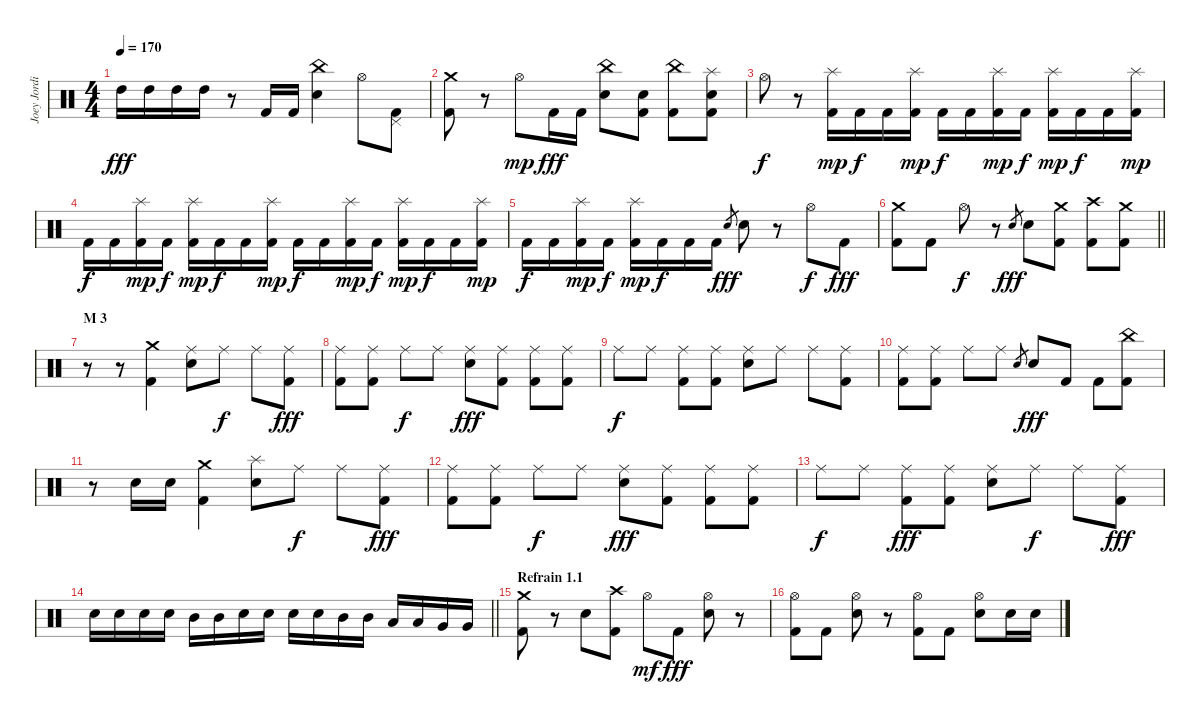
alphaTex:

\track ("Joey Jordison" "Joey Jordi") {instrument percussion}
\staff {score}
\articulation defaults
\ts (4 4)
\tempo 170
\clef neutral
\ks c "High Tom (hit)".16{dy fff} "High Tom (hit)".16 "High Tom (hit)".16 "High Tom (hit)".16
r.8 "Kick (hit) 2".16 "Kick (hit) 2".16 ("China (hit)" "Electric Snare (hit)").4 "Hi-Hat (open)".8 ("Pedal Hi-Hat (hit)" "Kick (hit) 2").8 |
("Crash medium (hit)" "Kick (hit) 2").8 r.8 "Hi-Hat (open)".8{dy mp} "Kick (hit) 2".16{dy fff} "Kick (hit) 2".16 ("China (hit)" "Electric Snare (hit)").8 ("Electric Snare (hit)" "Kick (hit) 2").8 ("China (hit)" "Kick (hit) 2").8 ("Splash (hit)" "Electric Snare (hit)" "Kick (hit) 2").8 |
"Hi-Hat (open)".8{dy f} r.8 ("Splash (hit)" "Kick (hit) 2").16{dy mp} "Kick (hit) 2".16{dy f} "Kick (hit) 2".16 ("Splash (hit)" "Kick (hit) 2").16{dy mp} "Kick (hit) 2".16{dy f} "Kick (hit) 2".16 ("Splash (hit)" "Kick (hit) 2").16{dy mp} "Kick (hit) 2".16{dy f} ("Splash (hit)" "Kick (hit) 2").16{dy mp} "Kick (hit) 2".16{dy f} "Kick (hit) 2".16 ("Splash (hit)" "Kick (hit) 2").16{dy mp} |
"Kick (hit) 2".16{dy f} "Kick (hit) 2".16 ("Splash (hit)" "Kick (hit) 2").16{dy mp} "Kick (hit) 2".16{dy f} ("Splash (hit)" "Kick (hit) 2").16{dy mp} "Kick (hit) 2".16{dy f} "Kick (hit) 2".16 ("Splash (hit)" "Kick (hit) 2").16{dy mp} "Kick (hit) 2".16{dy f} "Kick (hit) 2".16 ("Splash (hit)" "Kick (hit) 2").16{dy mp} "Kick (hit) 2".16{dy f} ("Splash (hit)" "Kick (hit) 2").16{dy mp} "Kick (hit) 2".16{dy f} "Kick (hit) 2".16 ("Splash (hit)" "Kick (hit) 2").16{dy mp} |
"Kick (hit) 2".16{dy f} "Kick (hit) 2".16 ("Splash (hit)" "Kick (hit) 2").16{dy mp} "Kick (hit) 2".16{dy f} ("Splash (hit)" "Kick (hit) 2").16{dy mp} "Kick (hit) 2".16{dy f} "Kick (hit) 2".16 "Kick (hit) 2".16 "Electric Snare (hit)".8{gr dy fff} "Electric Snare (hit)".8 r.8 "Hi-Hat (open)".8{dy f} "Kick (hit) 2".8{dy fff} |
\barLineRight lightlight
("Crash medium (hit)" "Kick (hit) 2").8 "Kick (hit) 2".8 "Hi-Hat (open)".8{dy f} r.8 "Electric Snare (hit)".8{gr dy fff} "Electric Snare (hit)".8 ("Crash medium (hit)" "Kick (hit) 2").8 ("Crash high (hit)" "Kick (hit) 2").8 ("Crash medium (hit)" "Kick (hit) 2").8 |
\section ("" "M 3")
r.8 r.8 ("Crash medium (hit)" "Kick (hit) 2").4 ("Ride (middle)" "Electric Snare (hit)").8 "Ride (middle)".8{dy f} "Ride (middle)".8 ("Ride (middle)" "Kick (hit) 2").8{dy fff} |
("Ride (middle)" "Kick (hit) 2").8 ("Ride (middle)" "Kick (hit) 2").8 "Ride (middle)".8{dy f} "Ride (middle)".8 ("Ride (middle)" "Electric Snare (hit)").8{dy fff} ("Ride (middle)" "Kick (hit) 2").8 ("Ride (middle)" "Kick (hit) 2").8 ("Ride (middle)" "Kick (hit) 2").8 |
"Ride (middle)".8{dy f} "Ride (middle)".8 ("Ride (middle)" "Kick (hit) 2").8 ("Ride (middle)" "Kick (hit) 2").8 ("Ride (middle)" "Electric Snare (hit)").8 "Ride (middle)".8 "Ride (middle)".8 ("Ride (middle)" "Kick (hit) 2").8 |
("Ride (middle)" "Kick (hit) 2").8 ("Ride (middle)" "Kick (hit) 2").8 "Ride (middle)".8 "Ride (middle)".8 "Electric Snare (hit)".8{gr} "Electric Snare (hit)".8{dy fff} "Kick (hit) 2".8 "Kick (hit) 2".8 ("China (hit)" "Kick (hit) 2").8 |
r.8 "Electric Snare (hit)".16 "Electric Snare (hit)".16 ("Crash medium (hit)" "Kick (hit) 2").4 ("Splash (hit)" "Electric Snare (hit)").8 "Ride (middle)".8{dy f} "Ride (middle)".8 ("Ride (middle)" "Kick (hit) 2").8{dy fff} |
("Ride (middle)" "Kick (hit) 2").8 ("Ride (middle)" "Kick (hit) 2").8 "Ride (middle)".8{dy f} "Ride (middle)".8 ("Ride (middle)" "Electric Snare (hit)").8{dy fff} ("Ride (middle)" "Kick (hit) 2").8 ("Ride (middle)" "Kick (hit) 2").8 ("Ride (middle)" "Kick (hit) 2").8 |
"Ride (middle)".8{dy f} "Ride (middle)".8 ("Ride (middle)" "Kick (hit) 2").8{dy fff} ("Ride (middle)" "Kick (hit) 2").8 ("Ride (middle)" "Electric Snare (hit)").8 "Ride (middle)".8{dy f} "Ride (middle)".8 ("Ride (middle)" "Kick (hit) 2").8{dy fff} |
\barLineRight lightlight "Electric Snare (hit)".16 "Electric Snare (hit)".16 "Electric Snare (hit)".16 "Electric Snare (hit)".16 "Mid Tom (hit)".16 "Mid Tom (hit)".16 "Electric Snare (hit)".16 "Electric Snare (hit)".16 "Electric Snare (hit)".16 "Electric Snare (hit)".16 "Mid Tom (hit)".16 "Mid Tom (hit)".16 "Low Tom (hit)".16 "Low Tom (hit)".16 "Very Low Tom (hit)".16 "Very Low Tom (hit)".16
|
\section ("" "Refrain 1.1")
("Crash medium (hit)" "Kick (hit) 2").8 r.8 "Electric Snare (hit)".8 ("Crash high (hit)" "Kick (hit) 2").8 "Hi-Hat (open)".8{dy mf} "Kick (hit) 2".8{dy fff} ("Hi-Hat (open)" "Electric Snare (hit)").8 r.8 |
("Hi-Hat (open)" "Kick (hit) 2").8 "Kick (hit) 2".8 ("Hi-Hat (open)" "Electric Snare (hit)").8 r.8 ("Hi-Hat (open)" "Kick (hit) 2").8 "Kick (hit) 2".8 ("Hi-Hat (open)" "Electric Snare (hit)").8 "Electric Snare (hit)".16 "Electric Snare (hit)".16
